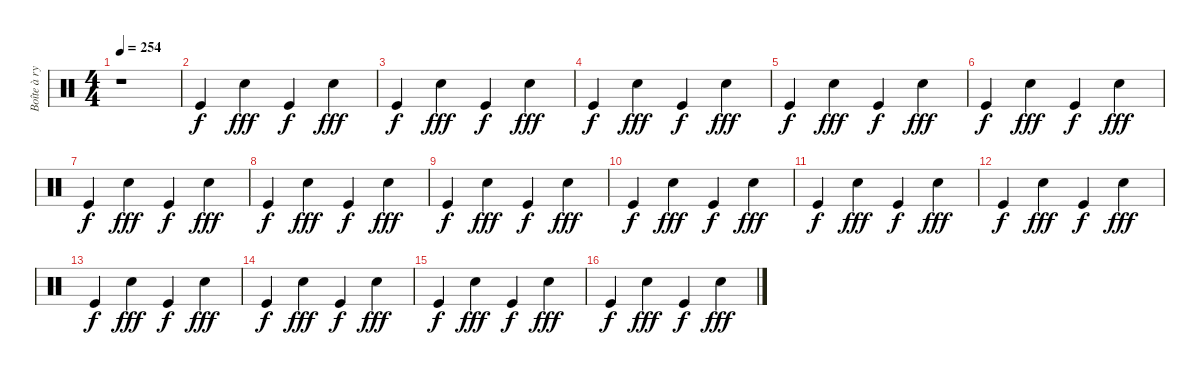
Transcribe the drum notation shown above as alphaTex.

\track ("Boîte à rytmes" "Boîte à ry") {instrument percussion}
\staff {score}
\articulation defaults
\ts (4 4)
\tempo 254
\clef neutral
\ks c
r.1{dy fff} |
"Kick (hit)".4{dy f} "Snare (hit) 2".4{dy fff} "Kick (hit)".4{dy f} "Snare (hit) 2".4{dy fff} |
"Kick (hit)".4{dy f} "Snare (hit) 2".4{dy fff} "Kick (hit)".4{dy f} "Snare (hit) 2".4{dy fff} |
"Kick (hit)".4{dy f} "Snare (hit) 2".4{dy fff} "Kick (hit)".4{dy f} "Snare (hit) 2".4{dy fff} |
"Kick (hit)".4{dy f} "Snare (hit) 2".4{dy fff} "Kick (hit)".4{dy f} "Snare (hit) 2".4{dy fff} |
"Kick (hit)".4{dy f} "Snare (hit) 2".4{dy fff} "Kick (hit)".4{dy f} "Snare (hit) 2".4{dy fff} |
"Kick (hit)".4{dy f} "Snare (hit) 2".4{dy fff} "Kick (hit)".4{dy f} "Snare (hit) 2".4{dy fff} |
"Kick (hit)".4{dy f} "Snare (hit) 2".4{dy fff} "Kick (hit)".4{dy f} "Snare (hit) 2".4{dy fff} |
"Kick (hit)".4{dy f} "Snare (hit) 2".4{dy fff} "Kick (hit)".4{dy f} "Snare (hit) 2".4{dy fff} |
"Kick (hit)".4{dy f} "Snare (hit) 2".4{dy fff} "Kick (hit)".4{dy f} "Snare (hit) 2".4{dy fff} |
"Kick (hit)".4{dy f} "Snare (hit) 2".4{dy fff} "Kick (hit)".4{dy f} "Snare (hit) 2".4{dy fff} |
"Kick (hit)".4{dy f} "Snare (hit) 2".4{dy fff} "Kick (hit)".4{dy f} "Snare (hit) 2".4{dy fff} |
"Kick (hit)".4{dy f} "Snare (hit) 2".4{dy fff} "Kick (hit)".4{dy f} "Snare (hit) 2".4{dy fff} |
"Kick (hit)".4{dy f} "Snare (hit) 2".4{dy fff} "Kick (hit)".4{dy f} "Snare (hit) 2".4{dy fff} |
"Kick (hit)".4{dy f} "Snare (hit) 2".4{dy fff} "Kick (hit)".4{dy f} "Snare (hit) 2".4{dy fff} |
"Kick (hit)".4{dy f} "Snare (hit) 2".4{dy fff} "Kick (hit)".4{dy f} "Snare (hit) 2".4{dy fff}
